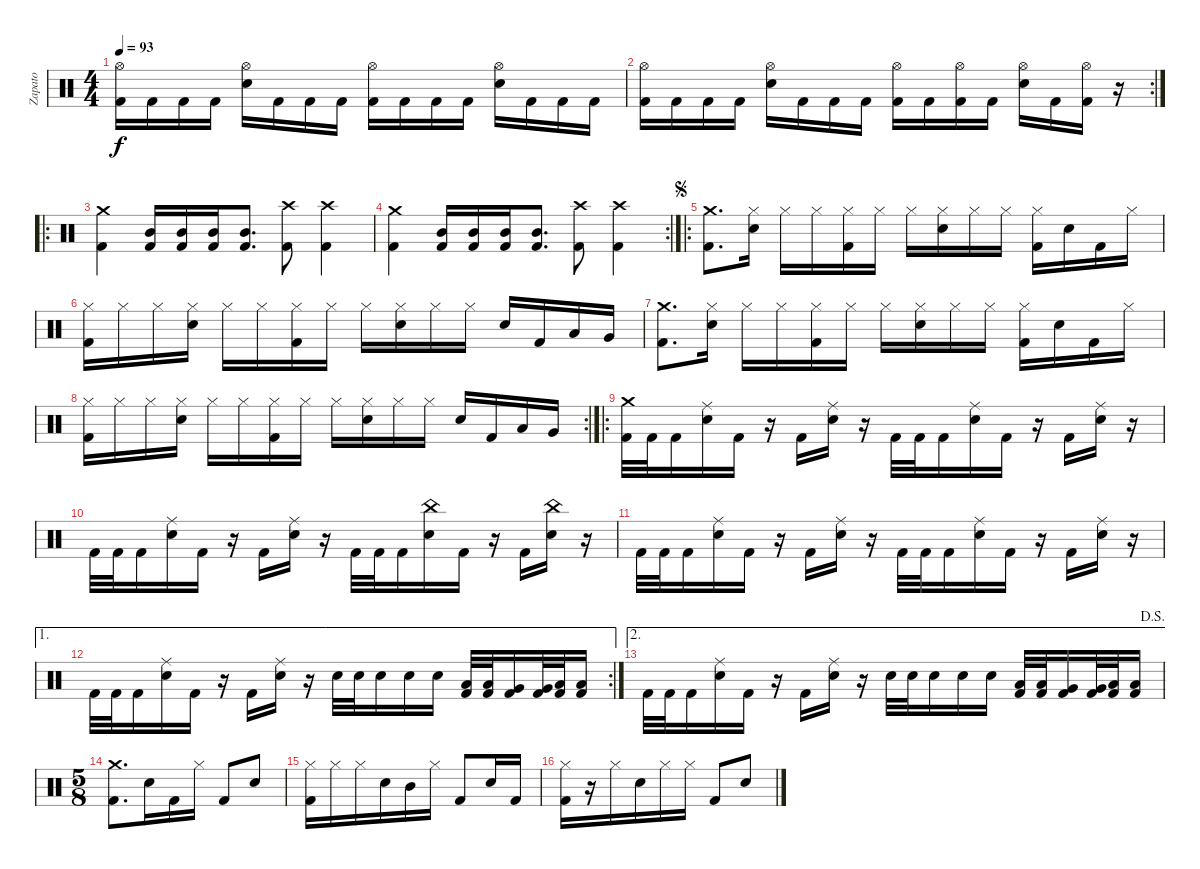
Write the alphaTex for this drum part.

\track ("Zapato" "Zapato") {instrument percussion}
\staff {score}
\articulation defaults
\ts (4 4)
\tempo 93
\clef neutral
\ks c
("Kick (hit) 2" "Hi-Hat (open)").16{dy f} "Kick (hit) 2".16 "Kick (hit) 2".16 "Kick (hit) 2".16 ("Electric Snare (hit)" "Hi-Hat (open)").16 "Kick (hit) 2".16 "Kick (hit) 2".16 "Kick (hit) 2".16 ("Kick (hit) 2" "Hi-Hat (open)").16 "Kick (hit) 2".16 "Kick (hit) 2".16 "Kick (hit) 2".16 ("Electric Snare (hit)" "Hi-Hat (open)").16 "Kick (hit) 2".16 "Kick (hit) 2".16 "Kick (hit) 2".16 |
\rc 2
("Kick (hit) 2" "Hi-Hat (open)").16 "Kick (hit) 2".16 "Kick (hit) 2".16 "Kick (hit) 2".16 ("Electric Snare (hit)" "Hi-Hat (open)").16 "Kick (hit) 2".16 "Kick (hit) 2".16 "Kick (hit) 2".16 ("Kick (hit) 2" "Hi-Hat (open)").16 "Kick (hit) 2".16 ("Kick (hit) 2" "Hi-Hat (open)").16 "Kick (hit) 2".16 ("Electric Snare (hit)" "Hi-Hat (open)").16 "Kick (hit) 2".16 ("Kick (hit) 2" "Hi-Hat (open)").16 r.16 |
\ro
("Kick (hit) 2" "Crash medium (hit)").4 ("Kick (hit) 2" "Mid Tom (hit)").16 ("Kick (hit) 2" "Mid Tom (hit)").16 ("Kick (hit) 2" "Mid Tom (hit)").16 ("Kick (hit) 2" "Mid Tom (hit)").8{d} ("Kick (hit) 2" "Crash high (hit)").8 ("Kick (hit) 2" "Crash high (hit)").4 |
\rc 2
("Kick (hit) 2" "Crash medium (hit)").4 ("Kick (hit) 2" "Mid Tom (hit)").16 ("Kick (hit) 2" "Mid Tom (hit)").16 ("Kick (hit) 2" "Mid Tom (hit)").16 ("Kick (hit) 2" "Mid Tom (hit)").8{d} ("Kick (hit) 2" "Crash high (hit)").8 ("Kick (hit) 2" "Crash high (hit)").4 |
\ro
\jump segno
("Kick (hit) 2" "Crash medium (hit)").8{d} ("Electric Snare (hit)" "Hi-Hat (closed)").16 "Hi-Hat (closed)".16 "Hi-Hat (closed)".16 ("Kick (hit) 2" "Hi-Hat (closed)").16 "Hi-Hat (closed)".16 "Hi-Hat (closed)".16 ("Electric Snare (hit)" "Hi-Hat (closed)").16 "Hi-Hat (closed)".16 "Hi-Hat (closed)".16 ("Kick (hit) 2" "Hi-Hat (closed)").16 "Electric Snare (hit)".16 "Kick (hit) 2".16 "Hi-Hat (closed)".16 |
("Kick (hit) 2" "Hi-Hat (closed)").16 "Hi-Hat (closed)".16 "Hi-Hat (closed)".16 ("Electric Snare (hit)" "Hi-Hat (closed)").16 "Hi-Hat (closed)".16 "Hi-Hat (closed)".16 ("Kick (hit) 2" "Hi-Hat (closed)").16 "Hi-Hat (closed)".16 "Hi-Hat (closed)".16 ("Electric Snare (hit)" "Hi-Hat (closed)").16 "Hi-Hat (closed)".16 "Hi-Hat (closed)".16 "Electric Snare (hit)".16 "Kick (hit) 2".16 "Low Floor Tom (hit)".16 "Very Low Tom (hit)".16 |
("Kick (hit) 2" "Crash medium (hit)").8{d} ("Electric Snare (hit)" "Hi-Hat (closed)").16 "Hi-Hat (closed)".16 "Hi-Hat (closed)".16 ("Kick (hit) 2" "Hi-Hat (closed)").16 "Hi-Hat (closed)".16 "Hi-Hat (closed)".16 ("Electric Snare (hit)" "Hi-Hat (closed)").16 "Hi-Hat (closed)".16 "Hi-Hat (closed)".16 ("Kick (hit) 2" "Hi-Hat (closed)").16 "Electric Snare (hit)".16 "Kick (hit) 2".16 "Hi-Hat (closed)".16 |
\rc 2
("Kick (hit) 2" "Hi-Hat (closed)").16 "Hi-Hat (closed)".16 "Hi-Hat (closed)".16 ("Electric Snare (hit)" "Hi-Hat (closed)").16 "Hi-Hat (closed)".16 "Hi-Hat (closed)".16 ("Kick (hit) 2" "Hi-Hat (closed)").16 "Hi-Hat (closed)".16 "Hi-Hat (closed)".16 ("Electric Snare (hit)" "Hi-Hat (closed)").16 "Hi-Hat (closed)".16 "Hi-Hat (closed)".16 "Electric Snare (hit)".16 "Kick (hit) 2".16 "Low Floor Tom (hit)".16 "Very Low Tom (hit)".16 |
\ro
("Kick (hit) 2" "Crash medium (hit)").32 "Kick (hit) 2".32 "Kick (hit) 2".16 ("Electric Snare (hit)" "Ride (middle)").16 "Kick (hit) 2".16 r.16 "Kick (hit) 2".16 ("Electric Snare (hit)" "Ride (middle)").16 r.16 "Kick (hit) 2".32 "Kick (hit) 2".32 "Kick (hit) 2".16 ("Electric Snare (hit)" "Ride (middle)").16 "Kick (hit) 2".16 r.16 "Kick (hit) 2".16 ("Electric Snare (hit)" "Ride (middle)").16 r.16 |
"Kick (hit) 2".32 "Kick (hit) 2".32 "Kick (hit) 2".16 ("Electric Snare (hit)" "Ride (middle)").16 "Kick (hit) 2".16 r.16 "Kick (hit) 2".16 ("Electric Snare (hit)" "Ride (middle)").16 r.16 "Kick (hit) 2".32 "Kick (hit) 2".32 "Kick (hit) 2".16 ("Electric Snare (hit)" "China (hit)").16 "Kick (hit) 2".16 r.16 "Kick (hit) 2".16 ("Electric Snare (hit)" "China (hit)").16 r.16 |
"Kick (hit) 2".32 "Kick (hit) 2".32 "Kick (hit) 2".16 ("Electric Snare (hit)" "Ride (middle)").16 "Kick (hit) 2".16 r.16 "Kick (hit) 2".16 ("Electric Snare (hit)" "Ride (middle)").16 r.16 "Kick (hit) 2".32 "Kick (hit) 2".32 "Kick (hit) 2".16 ("Electric Snare (hit)" "Ride (middle)").16 "Kick (hit) 2".16 r.16 "Kick (hit) 2".16 ("Electric Snare (hit)" "Ride (middle)").16 r.16 |
\ae 1
\rc 2 "Kick (hit) 2".32 "Kick (hit) 2".32 "Kick (hit) 2".16
("Electric Snare (hit)" "Ride (middle)").16 "Kick (hit) 2".16 r.16 "Kick (hit) 2".16 ("Electric Snare (hit)" "Ride (middle)").16 r.16 "Electric Snare (hit)".32 "Electric Snare (hit)".32 "Electric Snare (hit)".16 "Electric Snare (hit)".16 "Electric Snare (hit)".16 ("Kick (hit) 2" "Low Floor Tom (hit)").32 ("Kick (hit) 2" "Low Floor Tom (hit)").32 ("Kick (hit) 2" "Very Low Tom (hit)").16 ("Kick (hit) 2" "Very Low Tom (hit)").32 ("Kick (hit) 2" "Low Tom (hit)").32 ("Kick (hit) 2" "Low Tom (hit)").16 |
\ae 2
\jump dalsegno "Kick (hit) 2".32 "Kick (hit) 2".32 "Kick (hit) 2".16
("Electric Snare (hit)" "Ride (middle)").16 "Kick (hit) 2".16 r.16 "Kick (hit) 2".16 ("Electric Snare (hit)" "Ride (middle)").16 r.16 "Electric Snare (hit)".32 "Electric Snare (hit)".32 "Electric Snare (hit)".16 "Electric Snare (hit)".16 "Electric Snare (hit)".16 ("Kick (hit) 2" "Low Floor Tom (hit)").32 ("Kick (hit) 2" "Low Floor Tom (hit)").32 ("Kick (hit) 2" "Very Low Tom (hit)").16 ("Kick (hit) 2" "Very Low Tom (hit)").32 ("Kick (hit) 2" "Low Tom (hit)").32 ("Kick (hit) 2" "Low Tom (hit)").16 |
\ts (5 8)
("Kick (hit) 2" "Crash medium (hit)").8{d} "Electric Snare (hit)".16 "Kick (hit) 2".16 "Hi-Hat (closed)".16 "Kick (hit) 2".8 "Electric Snare (hit)".8 |
("Kick (hit) 2" "Hi-Hat (closed)").16 "Hi-Hat (closed)".16 "Hi-Hat (closed)".16 "Electric Snare (hit)".16 "Mid Tom (hit)".16 "Hi-Hat (closed)".16 "Kick (hit) 2".8 "Electric Snare (hit)".16 "Kick (hit) 2".16 |
("Kick (hit) 2" "Hi-Hat (closed)").16 r.16 "Hi-Hat (closed)".16 "Electric Snare (hit)".16 "Hi-Hat (closed)".16 "Hi-Hat (closed)".16 "Kick (hit) 2".8 "Electric Snare (hit)".8
